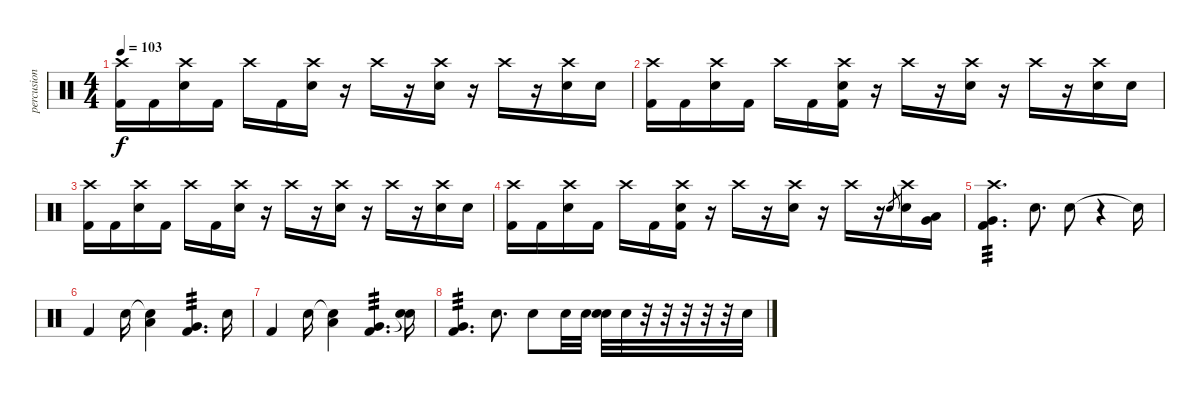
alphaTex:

\track ("percusion" "percusion") {instrument percussion}
\staff {score}
\articulation defaults
\ts (4 4)
\tempo 103
\clef neutral
\ks c
("Crash high (hit)" "Kick (hit) 2").16{dy f} "Kick (hit) 2".16 ("Crash high (hit)" "Electric Snare (hit)").16 "Kick (hit) 2".16 "Crash high (hit)".16 "Kick (hit) 2".16 ("Crash high (hit)" "Electric Snare (hit)").16 r.16 "Crash high (hit)".16 r.16 ("Crash high (hit)" "Electric Snare (hit)").16 r.16 "Crash high (hit)".16 r.16 ("Crash high (hit)" "Electric Snare (hit)").16 "Snare (hit)".16 |
("Crash high (hit)" "Kick (hit) 2").16 "Kick (hit) 2".16 ("Crash high (hit)" "Electric Snare (hit)").16 "Kick (hit) 2".16 "Crash high (hit)".16 "Kick (hit) 2".16 ("Crash high (hit)" "Electric Snare (hit)" "Kick (hit) 2").16 r.16 "Crash high (hit)".16 r.16 ("Crash high (hit)" "Electric Snare (hit)").16 r.16 "Crash high (hit)".16 r.16 ("Crash high (hit)" "Electric Snare (hit)").16 "Snare (hit)".16 |
("Crash high (hit)" "Kick (hit) 2").16 "Kick (hit) 2".16 ("Crash high (hit)" "Electric Snare (hit)").16 "Kick (hit) 2".16 "Crash high (hit)".16 "Kick (hit) 2".16 ("Crash high (hit)" "Electric Snare (hit)").16 r.16 "Crash high (hit)".16 r.16 ("Crash high (hit)" "Electric Snare (hit)").16 r.16 "Crash high (hit)".16 r.16 ("Crash high (hit)" "Electric Snare (hit)").16 "Snare (hit)".16 |
("Crash high (hit)" "Kick (hit) 2").16 "Kick (hit) 2".16 ("Crash high (hit)" "Electric Snare (hit)").16 "Kick (hit) 2".16 "Crash high (hit)".16 "Kick (hit) 2".16 ("Crash high (hit)" "Electric Snare (hit)" "Kick (hit) 2").16 r.16 "Crash high (hit)".16 r.16 ("Crash high (hit)" "Electric Snare (hit)").16 r.16 "Crash high (hit)".16 r.16 "Electric Snare (hit)".8{gr} ("Crash high (hit)" "Electric Snare (hit)").16 ("Very Low Tom (hit)" "Low Floor Tom (hit)").16 |
("Very Low Tom (hit)" "Crash high (hit)" "Kick (hit) 2").4{d tp 3} "Electric Snare (hit)".8{d} "Electric Snare (hit)".8 r.4 "Snare (hit)"{t}.16 |
"Kick (hit) 2".4 "Electric Snare (hit)".16 ("Snare (hit)"{t} "Low Floor Tom (hit)").4 ("Very Low Tom (hit)" "Kick (hit) 2").4{d tp 3} "Electric Snare (hit)".16 |
"Kick (hit) 2".4 "Electric Snare (hit)".16 ("Snare (hit)"{t} "Low Floor Tom (hit)").4 ("Very Low Tom (hit)" "Kick (hit) 2").4{d tp 3} ("Snare (hit)"{t} "Electric Snare (hit)").16 |
("Very Low Tom (hit)" "Kick (hit) 2").4{d tp 3} "Electric Snare (hit)".8{d} "Electric Snare (hit)".8 "Electric Snare (hit)".32 "Electric Snare (hit)".32 ("Snare (hit)"{t} "Electric Snare (hit)").32 "Electric Snare (hit)".32 r.32 r.32 r.32 r.32 r.32 "Snare (hit)".32
